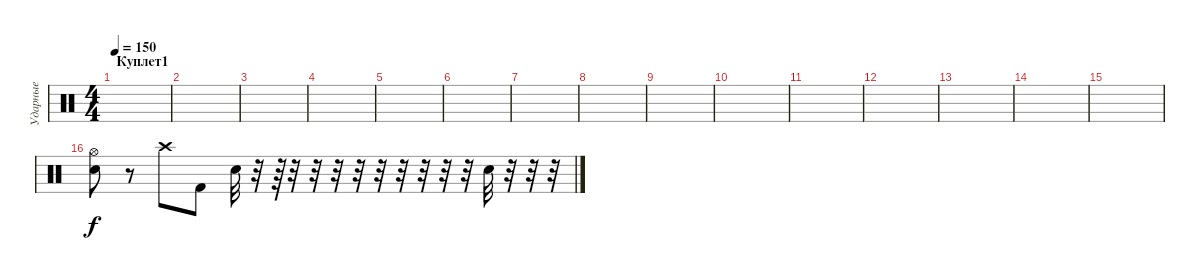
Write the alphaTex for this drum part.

\track ("Ударные" "Ударные") {instrument percussion}
\staff {score}
\articulation defaults
\ts (4 4)
\section ("" "Куплет1")
\tempo 150
\clef neutral
\ks c
|
|
|
|
|
|
|
|
|
|
|
|
|
|
|
("Hi-Hat (open)" "Snare (hit) 2").8 r.8 "Crash high (hit)".8 "Kick (hit) 2".8 "Electric Snare (hit)".32 r.32 r.64 r.32 r.32 r.32 r.32 r.32 r.32 r.32 r.32 r.32 "Electric Snare (hit)".32 r.32 r.32 r.32
